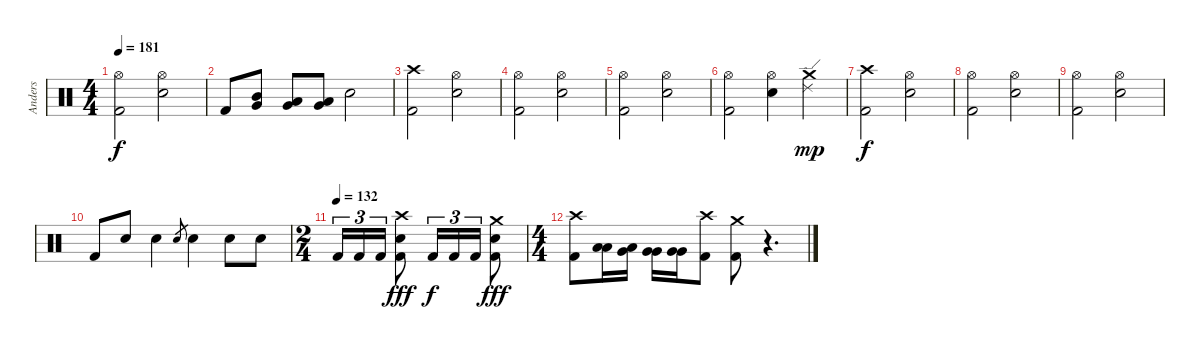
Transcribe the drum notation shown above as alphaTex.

\track ("Anders" "Anders") {instrument percussion}
\staff {score}
\articulation defaults
\ts (4 4)
\tempo 181
\clef neutral
\ks c
("Hi-Hat (open)" "Kick (hit) 2").2{dy f} ("Hi-Hat (open)" "Electric Snare (hit)").2 |
"Kick (hit) 2".8 ("Mid Tom (hit)" "Very Low Tom (hit)").8 ("Low Tom (hit)" "Very Low Tom (hit)").8 ("Low Floor Tom (hit)" "Very Low Tom (hit)").8 "Electric Snare (hit)".2 |
("Crash high (hit)" "Kick (hit) 2").2 ("Hi-Hat (open)" "Electric Snare (hit)").2 |
("Hi-Hat (open)" "Kick (hit) 2").2 ("Hi-Hat (open)" "Electric Snare (hit)").2 |
("Hi-Hat (open)" "Kick (hit) 2").2 ("Hi-Hat (open)" "Electric Snare (hit)").2 |
("Hi-Hat (open)" "Kick (hit) 2").2 ("Hi-Hat (open)" "Electric Snare (hit)").4 ("Crash medium (hit)" "Ride (edge) 2").4{dy mp} |
("Crash high (hit)" "Kick (hit) 2").2{dy f} ("Hi-Hat (open)" "Electric Snare (hit)").2 |
("Hi-Hat (open)" "Kick (hit) 2").2 ("Hi-Hat (open)" "Electric Snare (hit)").2 |
("Hi-Hat (open)" "Kick (hit) 2").2 ("Hi-Hat (open)" "Electric Snare (hit)").2 |
\section ("" "")
"Kick (hit) 2".8 "Electric Snare (hit)".8 "Electric Snare (hit)".4 "Electric Snare (hit)".8{gr} "Electric Snare (hit)".4 "Electric Snare (hit)".8 "Electric Snare (hit)".8 |
\ts (2 4)
\section ("" "")
\tempo (132)
"Kick (hit) 2".16{tu (3 2)} "Kick (hit) 2".16{tu (3 2)} "Kick (hit) 2".16{tu (3 2)} ("Crash high (hit)" "Electric Snare (hit)" "Kick (hit) 2").8{dy fff} "Kick (hit) 2".16{tu (3 2) dy f} "Kick (hit) 2".16{tu (3 2)} "Kick (hit) 2".16{tu (3 2)} ("Crash medium (hit)" "Electric Snare (hit)" "Kick (hit) 2").8{dy fff} |
\ts (4 4)
("Crash high (hit)" "Kick (hit) 2").8 ("Low Tom (hit)" "Low Tom (hit)").16 ("Very Low Tom (hit)" "Low Tom (hit)").16 ("Very Low Tom (hit)" "Very Low Tom (hit)").16 ("Very Low Tom (hit)" "Very Low Tom (hit)").16 ("Crash high (hit)" "Kick (hit) 2").8 ("Crash medium (hit)" "Kick (hit) 2").8 r.4{d}
